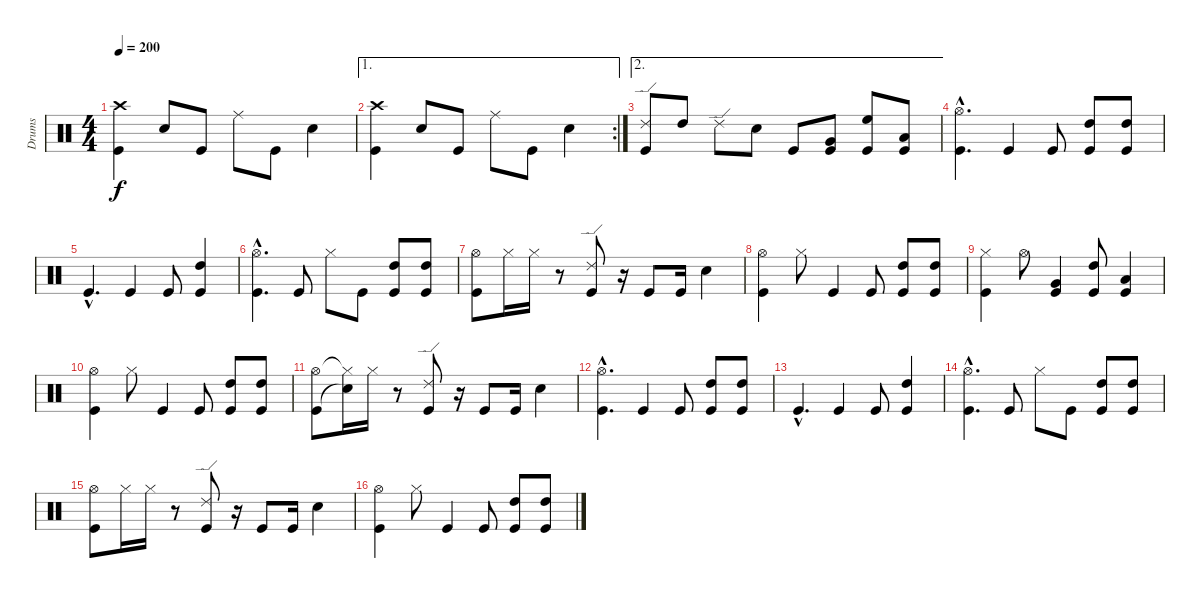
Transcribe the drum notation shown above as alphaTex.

\track ("Drums" "Drums") {instrument percussion}
\staff {score}
\articulation defaults
\ts (4 4)
\tempo 200
\clef neutral
\ks c
("Crash high (hit)" "Kick (hit)").4{dy f} "Snare (hit) 2".8 "Kick (hit)".8 "Ride (middle)".8 "Kick (hit)".8 "Snare (hit) 2".4 |
\ae 1
\rc 2
("Crash high (hit)" "Kick (hit)").4 "Snare (hit) 2".8 "Kick (hit)".8 "Ride (middle)".8 "Kick (hit)".8 "Snare (hit) 2".4 |
\ae 2
("Ride (edge) 2" "Kick (hit)").8 "High Tom (hit)".8 "Ride (edge) 2".8 "Snare (hit) 2".8 "Kick (hit)".8 ("Very Low Tom (hit)" "Kick (hit)").8 ("High Floor Tom (hit)" "Kick (hit)").8 ("Low Tom (hit)" "Kick (hit)").8 |
("Hi-Hat (open)"{hac} "Kick (hit)"{hac}).4{d} "Kick (hit)".4 "Kick (hit)".8 ("High Tom (hit)" "Kick (hit)").8 ("High Tom (hit)" "Kick (hit)").8 |
"Kick (hit)"{hac}.4{d} "Kick (hit)".4 "Kick (hit)".8 ("High Tom (hit)" "Kick (hit)").4 |
("Hi-Hat (open)"{hac} "Kick (hit)"{hac}).4{d} "Kick (hit)".8 "Hi-Hat (closed)".8 "Kick (hit)".8 ("High Tom (hit)" "Kick (hit)").8 ("High Tom (hit)" "Kick (hit)").8 |
("Hi-Hat (open)" "Kick (hit)").8 "Hi-Hat (closed)".16 "Hi-Hat (closed)".16 r.8 ("Ride (edge) 2" "Kick (hit)").8 r.16 "Kick (hit)".8 "Kick (hit)".16 "Snare (hit) 2".4 |
("Hi-Hat (open)" "Kick (hit)").4 "Hi-Hat (closed)".8 "Kick (hit)".4 "Kick (hit)".8 ("High Tom (hit)" "Kick (hit)").8 ("High Tom (hit)" "Kick (hit)").8 |
("Hi-Hat (closed)" "Kick (hit)").4 "Hi-Hat (open)".8 ("Very Low Tom (hit)" "Kick (hit)").4 ("High Tom (hit)" "Kick (hit)").8 ("Low Tom (hit)" "Kick (hit)").4 |
("Hi-Hat (open)" "Kick (hit)").4 "Hi-Hat (closed)".8 "Kick (hit)".4 "Kick (hit)".8 ("High Tom (hit)" "Kick (hit)").8 ("High Tom (hit)" "Kick (hit)").8 |
("Hi-Hat (open)" "Kick (hit)").8 ("Hi-Hat (closed)"{t} "Snare (hit)"{t}).16 "Hi-Hat (closed)".16 r.8 ("Ride (edge) 2" "Kick (hit)").8 r.16 "Kick (hit)".8 "Kick (hit)".16 "Snare (hit) 2".4 |
("Hi-Hat (open)"{hac} "Kick (hit)"{hac}).4{d} "Kick (hit)".4 "Kick (hit)".8 ("High Tom (hit)" "Kick (hit)").8 ("High Tom (hit)" "Kick (hit)").8 |
"Kick (hit)"{hac}.4{d} "Kick (hit)".4 "Kick (hit)".8 ("High Tom (hit)" "Kick (hit)").4 |
("Hi-Hat (open)"{hac} "Kick (hit)"{hac}).4{d} "Kick (hit)".8 "Hi-Hat (closed)".8 "Kick (hit)".8 ("High Tom (hit)" "Kick (hit)").8 ("High Tom (hit)" "Kick (hit)").8 |
("Hi-Hat (open)" "Kick (hit)").8 "Hi-Hat (closed)".16 "Hi-Hat (closed)".16 r.8 ("Ride (edge) 2" "Kick (hit)").8 r.16 "Kick (hit)".8 "Kick (hit)".16 "Snare (hit) 2".4 |
("Hi-Hat (open)" "Kick (hit)").4 "Hi-Hat (closed)".8 "Kick (hit)".4 "Kick (hit)".8 ("High Tom (hit)" "Kick (hit)").8 ("High Tom (hit)" "Kick (hit)").8
